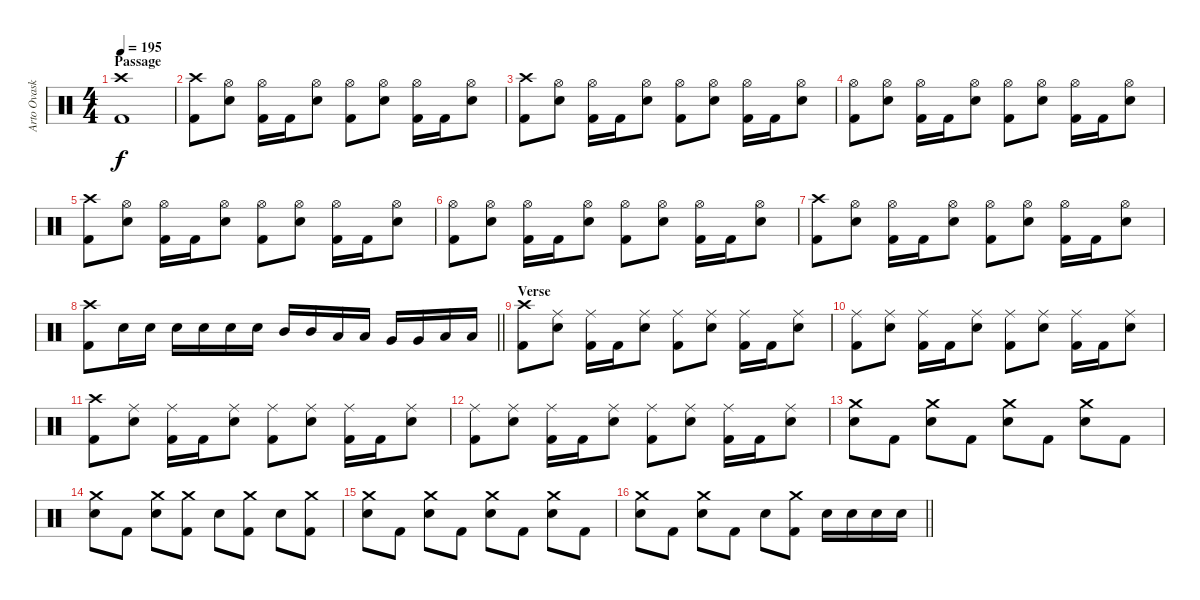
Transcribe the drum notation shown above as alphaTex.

\track ("Arto Ovaskainen" "Arto Ovask") {instrument percussion}
\staff {score}
\articulation defaults
\ts (4 4)
\section ("" "Passage")
\tempo 195
\clef neutral
\ks c
("Crash high (hit)" "Kick (hit) 2").1{dy f} |
("Crash high (hit)" "Kick (hit) 2").8 ("Hi-Hat (open)" "Electric Snare (hit)").8 ("Hi-Hat (open)" "Kick (hit) 2").16 "Kick (hit) 2".16 ("Hi-Hat (open)" "Electric Snare (hit)").8 ("Hi-Hat (open)" "Kick (hit) 2").8 ("Hi-Hat (open)" "Electric Snare (hit)").8 ("Hi-Hat (open)" "Kick (hit) 2").16 "Kick (hit) 2".16 ("Hi-Hat (open)" "Electric Snare (hit)").8 |
("Crash high (hit)" "Kick (hit) 2").8 ("Hi-Hat (open)" "Electric Snare (hit)").8 ("Hi-Hat (open)" "Kick (hit) 2").16 "Kick (hit) 2".16 ("Hi-Hat (open)" "Electric Snare (hit)").8 ("Hi-Hat (open)" "Kick (hit) 2").8 ("Hi-Hat (open)" "Electric Snare (hit)").8 ("Hi-Hat (open)" "Kick (hit) 2").16 "Kick (hit) 2".16 ("Hi-Hat (open)" "Electric Snare (hit)").8 |
("Hi-Hat (open)" "Kick (hit) 2").8 ("Hi-Hat (open)" "Electric Snare (hit)").8 ("Hi-Hat (open)" "Kick (hit) 2").16 "Kick (hit) 2".16 ("Hi-Hat (open)" "Electric Snare (hit)").8 ("Hi-Hat (open)" "Kick (hit) 2").8 ("Hi-Hat (open)" "Electric Snare (hit)").8 ("Hi-Hat (open)" "Kick (hit) 2").16 "Kick (hit) 2".16 ("Hi-Hat (open)" "Electric Snare (hit)").8 |
("Crash high (hit)" "Kick (hit) 2").8 ("Hi-Hat (open)" "Electric Snare (hit)").8 ("Hi-Hat (open)" "Kick (hit) 2").16 "Kick (hit) 2".16 ("Hi-Hat (open)" "Electric Snare (hit)").8 ("Hi-Hat (open)" "Kick (hit) 2").8 ("Hi-Hat (open)" "Electric Snare (hit)").8 ("Hi-Hat (open)" "Kick (hit) 2").16 "Kick (hit) 2".16 ("Hi-Hat (open)" "Electric Snare (hit)").8 |
("Hi-Hat (open)" "Kick (hit) 2").8 ("Hi-Hat (open)" "Electric Snare (hit)").8 ("Hi-Hat (open)" "Kick (hit) 2").16 "Kick (hit) 2".16 ("Hi-Hat (open)" "Electric Snare (hit)").8 ("Hi-Hat (open)" "Kick (hit) 2").8 ("Hi-Hat (open)" "Electric Snare (hit)").8 ("Hi-Hat (open)" "Kick (hit) 2").16 "Kick (hit) 2".16 ("Hi-Hat (open)" "Electric Snare (hit)").8 |
("Crash high (hit)" "Kick (hit) 2").8 ("Hi-Hat (open)" "Electric Snare (hit)").8 ("Hi-Hat (open)" "Kick (hit) 2").16 "Kick (hit) 2".16 ("Hi-Hat (open)" "Electric Snare (hit)").8 ("Hi-Hat (open)" "Kick (hit) 2").8 ("Hi-Hat (open)" "Electric Snare (hit)").8 ("Hi-Hat (open)" "Kick (hit) 2").16 "Kick (hit) 2".16 ("Hi-Hat (open)" "Electric Snare (hit)").8 |
\barLineRight lightlight
("Crash high (hit)" "Kick (hit) 2").8 "Electric Snare (hit)".16 "Electric Snare (hit)".16 "Electric Snare (hit)".16 "Electric Snare (hit)".16 "Electric Snare (hit)".16 "Electric Snare (hit)".16 "Mid Tom (hit)".16 "Mid Tom (hit)".16 "Low Tom (hit)".16 "Low Tom (hit)".16 "Very Low Tom (hit)".16 "Very Low Tom (hit)".16 "Low Floor Tom (hit)".16 "Low Floor Tom (hit)".16 |
\section ("" "Verse")
("Crash high (hit)" "Kick (hit) 2").8 ("Ride (middle)" "Electric Snare (hit)").8 ("Ride (middle)" "Kick (hit) 2").16 "Kick (hit) 2".16 ("Ride (middle)" "Electric Snare (hit)").8 ("Ride (middle)" "Kick (hit) 2").8 ("Ride (middle)" "Electric Snare (hit)").8 ("Ride (middle)" "Kick (hit) 2").16 "Kick (hit) 2".16 ("Ride (middle)" "Electric Snare (hit)").8 |
("Ride (middle)" "Kick (hit) 2").8 ("Ride (middle)" "Electric Snare (hit)").8 ("Ride (middle)" "Kick (hit) 2").16 "Kick (hit) 2".16 ("Ride (middle)" "Electric Snare (hit)").8 ("Ride (middle)" "Kick (hit) 2").8 ("Ride (middle)" "Electric Snare (hit)").8 ("Ride (middle)" "Kick (hit) 2").16 "Kick (hit) 2".16 ("Ride (middle)" "Electric Snare (hit)").8 |
("Crash high (hit)" "Kick (hit) 2").8 ("Ride (middle)" "Electric Snare (hit)").8 ("Ride (middle)" "Kick (hit) 2").16 "Kick (hit) 2".16 ("Ride (middle)" "Electric Snare (hit)").8 ("Ride (middle)" "Kick (hit) 2").8 ("Ride (middle)" "Electric Snare (hit)").8 ("Ride (middle)" "Kick (hit) 2").16 "Kick (hit) 2".16 ("Ride (middle)" "Electric Snare (hit)").8 |
("Ride (middle)" "Kick (hit) 2").8 ("Ride (middle)" "Electric Snare (hit)").8 ("Ride (middle)" "Kick (hit) 2").16 "Kick (hit) 2".16 ("Ride (middle)" "Electric Snare (hit)").8 ("Ride (middle)" "Kick (hit) 2").8 ("Ride (middle)" "Electric Snare (hit)").8 ("Ride (middle)" "Kick (hit) 2").16 "Kick (hit) 2".16 ("Ride (middle)" "Electric Snare (hit)").8 |
("Crash medium (hit)" "Electric Snare (hit)").8 "Kick (hit) 2".8 ("Crash medium (hit)" "Electric Snare (hit)").8 "Kick (hit) 2".8 ("Crash medium (hit)" "Electric Snare (hit)").8 "Kick (hit) 2".8 ("Crash medium (hit)" "Electric Snare (hit)").8 "Kick (hit) 2".8 |
("Crash medium (hit)" "Electric Snare (hit)").8 "Kick (hit) 2".8 ("Crash medium (hit)" "Electric Snare (hit)").8 ("Crash medium (hit)" "Kick (hit) 2").8 "Electric Snare (hit)".8 ("Crash medium (hit)" "Kick (hit) 2").8 "Electric Snare (hit)".8 ("Crash medium (hit)" "Kick (hit) 2").8 |
("Crash medium (hit)" "Electric Snare (hit)").8 "Kick (hit) 2".8 ("Crash medium (hit)" "Electric Snare (hit)").8 "Kick (hit) 2".8 ("Crash medium (hit)" "Electric Snare (hit)").8 "Kick (hit) 2".8 ("Crash medium (hit)" "Electric Snare (hit)").8 "Kick (hit) 2".8 |
\barLineRight lightlight
("Crash medium (hit)" "Electric Snare (hit)").8 "Kick (hit) 2".8 ("Crash medium (hit)" "Electric Snare (hit)").8 "Kick (hit) 2".8 "Electric Snare (hit)".8 ("Crash medium (hit)" "Kick (hit) 2").8 "Electric Snare (hit)".16 "Electric Snare (hit)".16 "Electric Snare (hit)".16 "Electric Snare (hit)".16
